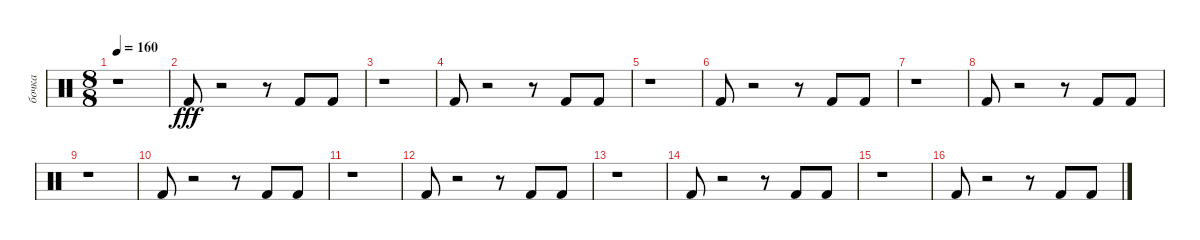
\track ("бочка" "бочка") {instrument percussion}
\staff {score}
\articulation defaults
\ts (8 8)
\tempo 160
\clef neutral
\ks c
r.1{dy fff} |
"Kick (hit) 2".8 r.2 r.8 "Kick (hit) 2".8 "Kick (hit) 2".8 |
r.1 |
"Kick (hit) 2".8 r.2 r.8 "Kick (hit) 2".8 "Kick (hit) 2".8 |
r.1 |
"Kick (hit) 2".8 r.2 r.8 "Kick (hit) 2".8 "Kick (hit) 2".8 |
r.1 |
"Kick (hit) 2".8 r.2 r.8 "Kick (hit) 2".8 "Kick (hit) 2".8 |
r.1 |
"Kick (hit) 2".8 r.2 r.8 "Kick (hit) 2".8 "Kick (hit) 2".8 |
r.1 |
"Kick (hit) 2".8 r.2 r.8 "Kick (hit) 2".8 "Kick (hit) 2".8 |
r.1 |
"Kick (hit) 2".8 r.2 r.8 "Kick (hit) 2".8 "Kick (hit) 2".8 |
r.1 |
"Kick (hit) 2".8 r.2 r.8 "Kick (hit) 2".8{volume 16} "Kick (hit) 2".8
